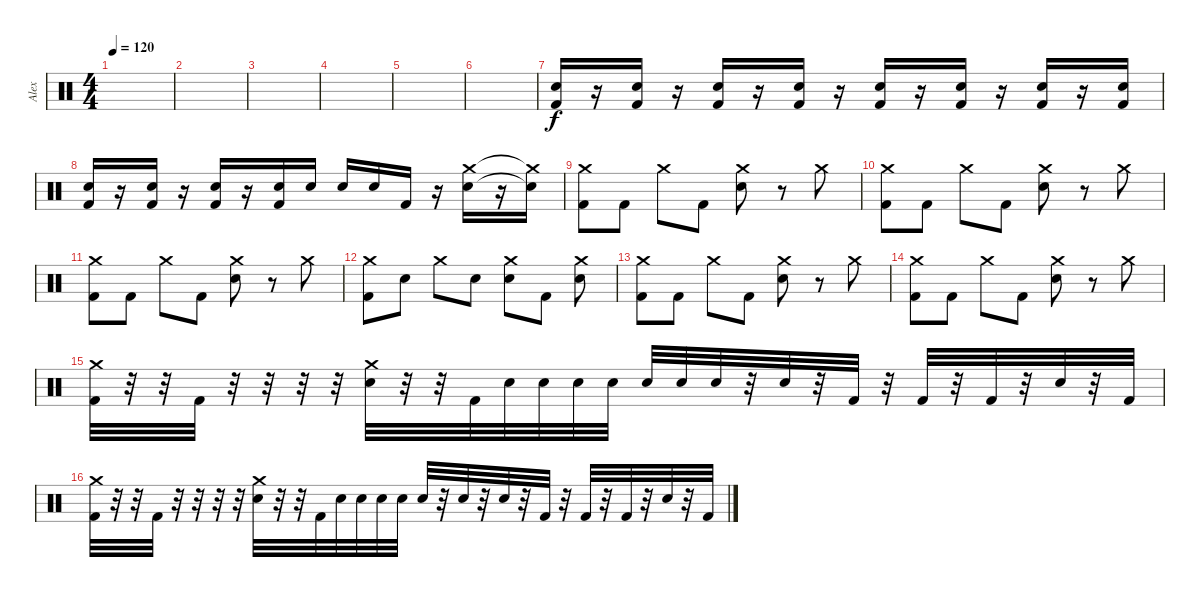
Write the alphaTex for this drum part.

\track ("Alex" "Alex") {instrument percussion}
\staff {score}
\articulation defaults
\ts (4 4)
\tempo 120
\clef neutral
\ks c
|
|
|
|
|
|
("Snare (hit) 2" "Kick (hit) 2").16 r.16 ("Snare (hit) 2" "Kick (hit) 2").16 r.16 ("Snare (hit) 2" "Kick (hit) 2").16 r.16 ("Snare (hit) 2" "Kick (hit) 2").16 r.16 ("Snare (hit) 2" "Kick (hit) 2").16 r.16 ("Snare (hit) 2" "Kick (hit) 2").16 r.16 ("Snare (hit) 2" "Kick (hit) 2").16 r.16 ("Snare (hit) 2" "Kick (hit) 2").16 |
("Snare (hit) 2" "Kick (hit) 2").16 r.16 ("Snare (hit) 2" "Kick (hit) 2").16 r.16 ("Snare (hit) 2" "Kick (hit) 2").16 r.16 ("Snare (hit) 2" "Kick (hit) 2").16 "Snare (hit) 2".16 "Snare (hit) 2".16 "Snare (hit) 2".16 "Kick (hit) 2".16 r.16 ("Crash medium (hit)" "Snare (hit) 2").16 r.16 ("Crash medium (hit)"{t} "Snare (hit) 2"{t}).16 |
("Crash medium (hit)" "Kick (hit) 2").8 "Kick (hit) 2".8 "Crash medium (hit)".8 "Kick (hit) 2".8 ("Crash medium (hit)" "Snare (hit) 2").8 r.8 "Crash medium (hit)".8 |
("Crash medium (hit)" "Kick (hit) 2").8 "Kick (hit) 2".8 "Crash medium (hit)".8 "Kick (hit) 2".8 ("Crash medium (hit)" "Snare (hit) 2").8 r.8 "Crash medium (hit)".8 |
("Crash medium (hit)" "Kick (hit) 2").8 "Kick (hit) 2".8 "Crash medium (hit)".8 "Kick (hit) 2".8 ("Crash medium (hit)" "Snare (hit) 2").8 r.8 "Crash medium (hit)".8 |
("Crash medium (hit)" "Kick (hit) 2").8 "Snare (hit) 2".8 "Crash medium (hit)".8 "Snare (hit) 2".8 ("Crash medium (hit)" "Snare (hit) 2").8 "Kick (hit) 2".8 ("Crash medium (hit)" "Snare (hit) 2").8 |
("Crash medium (hit)" "Kick (hit) 2").8 "Kick (hit) 2".8 "Crash medium (hit)".8 "Kick (hit) 2".8 ("Crash medium (hit)" "Snare (hit) 2").8 r.8 "Crash medium (hit)".8 |
("Crash medium (hit)" "Kick (hit) 2").8 "Kick (hit) 2".8 "Crash medium (hit)".8 "Kick (hit) 2".8 ("Crash medium (hit)" "Snare (hit) 2").8 r.8 "Crash medium (hit)".8 |
("Crash medium (hit)" "Kick (hit) 2").32 r.32 r.32 "Kick (hit) 2".32 r.32 r.32 r.32 r.32 ("Crash medium (hit)" "Snare (hit) 2").32 r.32 r.32 "Kick (hit) 2".32 "Snare (hit) 2".32 "Snare (hit) 2".32 "Snare (hit) 2".32 "Snare (hit) 2".32 "Snare (hit) 2".32 "Snare (hit) 2".32 "Snare (hit) 2".32 r.32 "Snare (hit) 2".32 r.32 "Kick (hit) 2".32 r.32 "Kick (hit) 2".32 r.32 "Kick (hit) 2".32 r.32 "Snare (hit) 2".32 r.32 "Kick (hit) 2".32 |
("Crash medium (hit)" "Kick (hit) 2").32 r.32 r.32 "Kick (hit) 2".32 r.32 r.32 r.32 r.32 ("Crash medium (hit)" "Snare (hit) 2").32 r.32 r.32 "Kick (hit) 2".32 "Snare (hit) 2".32 "Snare (hit) 2".32 "Snare (hit) 2".32 "Snare (hit) 2".32 "Snare (hit) 2".32 r.32 "Snare (hit) 2".32 r.32 "Snare (hit) 2".32 r.32 "Kick (hit) 2".32 r.32 "Kick (hit) 2".32 r.32 "Kick (hit) 2".32 r.32 "Snare (hit) 2".32 r.32 "Kick (hit) 2".32
